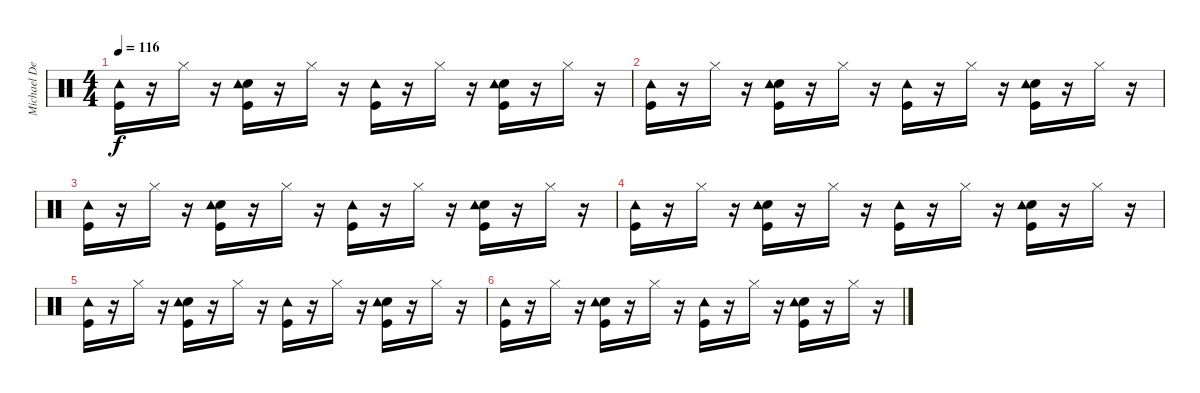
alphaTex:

\track ("Michael DeRosier" "Michael De") {instrument percussion}
\staff {score}
\articulation defaults
\ts (4 4)
\tempo 116
\clef neutral
\ks c
("Kick (hit)" "Tambourine (hit)").16{dy f} r.16 "Hi-Hat (closed)".16 r.16 ("Kick (hit)" "Electric Snare (hit)" "Tambourine (hit)").16 r.16 "Hi-Hat (closed)".16 r.16 ("Kick (hit)" "Tambourine (hit)").16 r.16 "Hi-Hat (closed)".16 r.16 ("Kick (hit)" "Electric Snare (hit)" "Tambourine (hit)").16 r.16 "Hi-Hat (closed)".16 r.16 |
("Kick (hit)" "Tambourine (hit)").16 r.16 "Hi-Hat (closed)".16 r.16 ("Kick (hit)" "Electric Snare (hit)" "Tambourine (hit)").16 r.16 "Hi-Hat (closed)".16 r.16 ("Kick (hit)" "Tambourine (hit)").16 r.16 "Hi-Hat (closed)".16 r.16 ("Kick (hit)" "Electric Snare (hit)" "Tambourine (hit)").16 r.16 "Hi-Hat (closed)".16 r.16 |
("Kick (hit)" "Tambourine (hit)").16{volume 0} r.16 "Hi-Hat (closed)".16 r.16 ("Kick (hit)" "Electric Snare (hit)" "Tambourine (hit)").16 r.16 "Hi-Hat (closed)".16 r.16 ("Kick (hit)" "Tambourine (hit)").16 r.16 "Hi-Hat (closed)".16 r.16 ("Kick (hit)" "Electric Snare (hit)" "Tambourine (hit)").16 r.16 "Hi-Hat (closed)".16 r.16 |
("Kick (hit)" "Tambourine (hit)").16 r.16 "Hi-Hat (closed)".16 r.16 ("Kick (hit)" "Electric Snare (hit)" "Tambourine (hit)").16 r.16 "Hi-Hat (closed)".16 r.16 ("Kick (hit)" "Tambourine (hit)").16 r.16 "Hi-Hat (closed)".16 r.16 ("Kick (hit)" "Electric Snare (hit)" "Tambourine (hit)").16 r.16 "Hi-Hat (closed)".16 r.16 |
("Kick (hit)" "Tambourine (hit)").16 r.16 "Hi-Hat (closed)".16 r.16 ("Kick (hit)" "Electric Snare (hit)" "Tambourine (hit)").16 r.16 "Hi-Hat (closed)".16 r.16 ("Kick (hit)" "Tambourine (hit)").16 r.16 "Hi-Hat (closed)".16 r.16 ("Kick (hit)" "Electric Snare (hit)" "Tambourine (hit)").16 r.16 "Hi-Hat (closed)".16 r.16 |
("Kick (hit)" "Tambourine (hit)").16 r.16 "Hi-Hat (closed)".16 r.16 ("Kick (hit)" "Electric Snare (hit)" "Tambourine (hit)").16 r.16 "Hi-Hat (closed)".16 r.16 ("Kick (hit)" "Tambourine (hit)").16 r.16 "Hi-Hat (closed)".16 r.16 ("Kick (hit)" "Electric Snare (hit)" "Tambourine (hit)").16 r.16 "Hi-Hat (closed)".16 r.16
